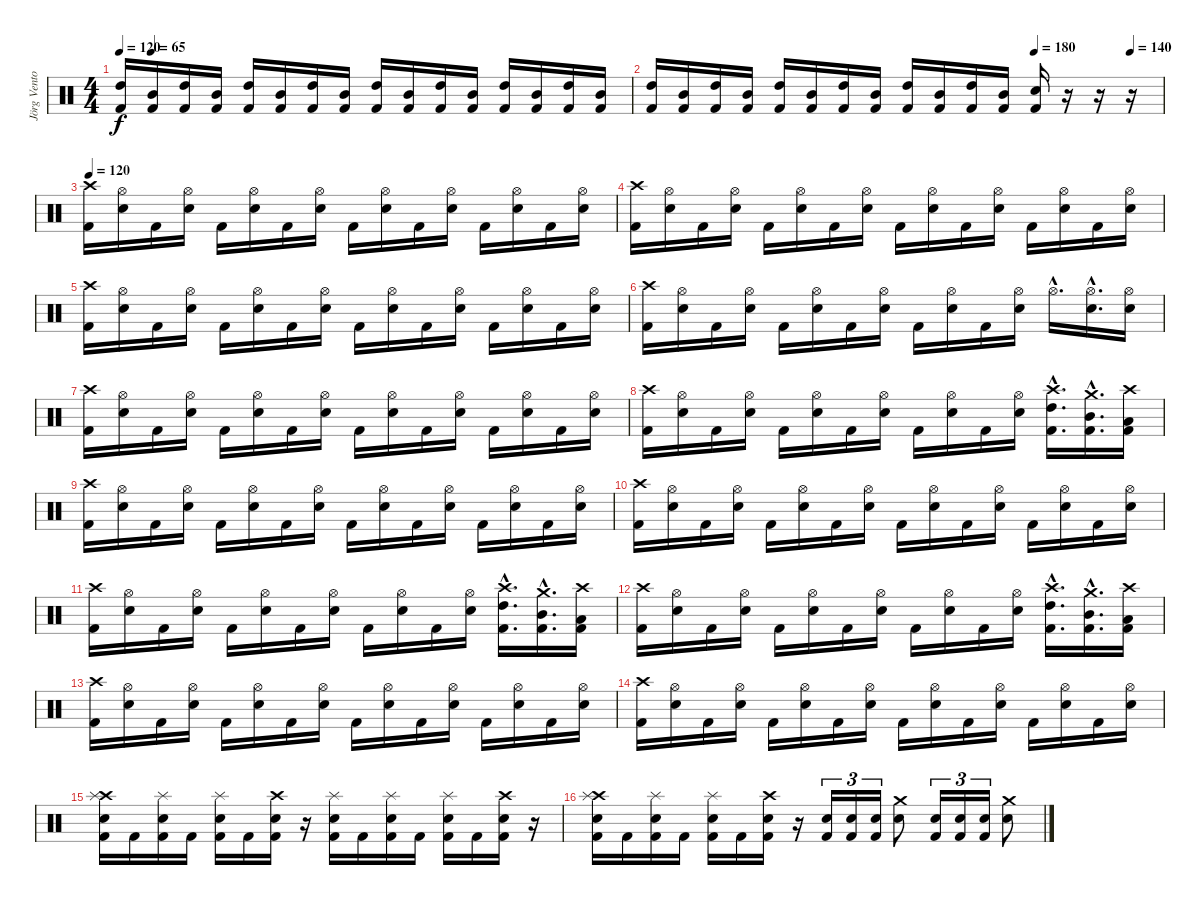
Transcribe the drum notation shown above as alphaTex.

\track ("Jörg Ventor" "Jörg Vento") {instrument percussion}
\staff {score}
\articulation defaults
\ts (4 4)
\tempo 120
\tempo 180
\tempo (65 0.0625)
\tempo 120
\clef neutral
\ks c
("Kick (hit) 2" "High Tom (hit)").16{dy f} ("Kick (hit) 2" "Mid Tom (hit)").16 ("Kick (hit) 2" "High Tom (hit)").16 ("Kick (hit) 2" "Mid Tom (hit)").16 ("Kick (hit) 2" "High Tom (hit)").16 ("Kick (hit) 2" "Mid Tom (hit)").16 ("Kick (hit) 2" "High Tom (hit)").16 ("Kick (hit) 2" "Mid Tom (hit)").16 ("Kick (hit) 2" "High Tom (hit)").16 ("Kick (hit) 2" "Mid Tom (hit)").16 ("Kick (hit) 2" "High Tom (hit)").16 ("Kick (hit) 2" "Mid Tom (hit)").16 ("Kick (hit) 2" "High Tom (hit)").16 ("Kick (hit) 2" "Mid Tom (hit)").16 ("Kick (hit) 2" "High Tom (hit)").16 ("Kick (hit) 2" "Mid Tom (hit)").16 |
\tempo (180 0.75)
\tempo (140 0.9375)
("Kick (hit) 2" "High Tom (hit)").16 ("Kick (hit) 2" "Mid Tom (hit)").16 ("Kick (hit) 2" "High Tom (hit)").16 ("Kick (hit) 2" "Mid Tom (hit)").16 ("Kick (hit) 2" "High Tom (hit)").16 ("Kick (hit) 2" "Mid Tom (hit)").16 ("Kick (hit) 2" "High Tom (hit)").16 ("Kick (hit) 2" "Mid Tom (hit)").16 ("Kick (hit) 2" "High Tom (hit)").16 ("Kick (hit) 2" "Mid Tom (hit)").16 ("Kick (hit) 2" "High Tom (hit)").16 ("Kick (hit) 2" "Mid Tom (hit)").16 ("Kick (hit) 2" "Snare (hit) 2").16 r.16 r.16 r.16 |
\tempo 120
("Crash high (hit)" "Kick (hit) 2").16 ("Hi-Hat (open)" "Snare (hit) 2").16 "Kick (hit) 2".16 ("Hi-Hat (open)" "Snare (hit) 2").16 "Kick (hit) 2".16 ("Hi-Hat (open)" "Snare (hit) 2").16 "Kick (hit) 2".16 ("Hi-Hat (open)" "Snare (hit) 2").16 "Kick (hit) 2".16 ("Hi-Hat (open)" "Snare (hit) 2").16 "Kick (hit) 2".16 ("Hi-Hat (open)" "Snare (hit) 2").16 "Kick (hit) 2".16 ("Hi-Hat (open)" "Snare (hit) 2").16 "Kick (hit) 2".16 ("Hi-Hat (open)" "Snare (hit) 2").16 |
("Crash high (hit)" "Kick (hit) 2").16 ("Hi-Hat (open)" "Snare (hit) 2").16 "Kick (hit) 2".16 ("Hi-Hat (open)" "Snare (hit) 2").16 "Kick (hit) 2".16 ("Hi-Hat (open)" "Snare (hit) 2").16 "Kick (hit) 2".16 ("Hi-Hat (open)" "Snare (hit) 2").16 "Kick (hit) 2".16 ("Hi-Hat (open)" "Snare (hit) 2").16 "Kick (hit) 2".16 ("Hi-Hat (open)" "Snare (hit) 2").16 "Kick (hit) 2".16 ("Hi-Hat (open)" "Snare (hit) 2").16 "Kick (hit) 2".16 ("Hi-Hat (open)" "Snare (hit) 2").16 |
("Crash high (hit)" "Kick (hit) 2").16 ("Hi-Hat (open)" "Snare (hit) 2").16 "Kick (hit) 2".16 ("Hi-Hat (open)" "Snare (hit) 2").16 "Kick (hit) 2".16 ("Hi-Hat (open)" "Snare (hit) 2").16 "Kick (hit) 2".16 ("Hi-Hat (open)" "Snare (hit) 2").16 "Kick (hit) 2".16 ("Hi-Hat (open)" "Snare (hit) 2").16 "Kick (hit) 2".16 ("Hi-Hat (open)" "Snare (hit) 2").16 "Kick (hit) 2".16 ("Hi-Hat (open)" "Snare (hit) 2").16 "Kick (hit) 2".16 ("Hi-Hat (open)" "Snare (hit) 2").16 |
("Crash high (hit)" "Kick (hit) 2").16 ("Hi-Hat (open)" "Snare (hit) 2").16 "Kick (hit) 2".16 ("Hi-Hat (open)" "Snare (hit) 2").16 "Kick (hit) 2".16 ("Hi-Hat (open)" "Snare (hit) 2").16 "Kick (hit) 2".16 ("Hi-Hat (open)" "Snare (hit) 2").16 "Kick (hit) 2".16 ("Hi-Hat (open)" "Snare (hit) 2").16 "Kick (hit) 2".16 ("Hi-Hat (open)" "Snare (hit) 2").16 "Hi-Hat (open)"{hac}.16{d} ("Hi-Hat (open)"{hac} "Snare (hit) 2"{hac}).16{d} ("Hi-Hat (open)" "Snare (hit) 2").16 |
("Crash high (hit)" "Kick (hit) 2").16 ("Hi-Hat (open)" "Snare (hit) 2").16 "Kick (hit) 2".16 ("Hi-Hat (open)" "Snare (hit) 2").16 "Kick (hit) 2".16 ("Hi-Hat (open)" "Snare (hit) 2").16 "Kick (hit) 2".16 ("Hi-Hat (open)" "Snare (hit) 2").16 "Kick (hit) 2".16 ("Hi-Hat (open)" "Snare (hit) 2").16 "Kick (hit) 2".16 ("Hi-Hat (open)" "Snare (hit) 2").16 "Kick (hit) 2".16 ("Hi-Hat (open)" "Snare (hit) 2").16 "Kick (hit) 2".16 ("Hi-Hat (open)" "Snare (hit) 2").16 |
("Crash high (hit)" "Kick (hit) 2").16 ("Hi-Hat (open)" "Snare (hit) 2").16 "Kick (hit) 2".16 ("Hi-Hat (open)" "Snare (hit) 2").16 "Kick (hit) 2".16 ("Hi-Hat (open)" "Snare (hit) 2").16 "Kick (hit) 2".16 ("Hi-Hat (open)" "Snare (hit) 2").16 "Kick (hit) 2".16 ("Hi-Hat (open)" "Snare (hit) 2").16 "Kick (hit) 2".16 ("Hi-Hat (open)" "Snare (hit) 2").16 ("High Tom (hit)"{hac} "Kick (hit) 2"{hac} "Crash high (hit)"{hac}).16{d} ("Mid Tom (hit)"{hac} "Kick (hit) 2"{hac} "Crash medium (hit)"{hac}).16{d} ("Low Tom (hit)" "Kick (hit) 2" "Crash high (hit)").16 |
("Crash high (hit)" "Kick (hit) 2").16 ("Hi-Hat (open)" "Snare (hit) 2").16 "Kick (hit) 2".16 ("Hi-Hat (open)" "Snare (hit) 2").16 "Kick (hit) 2".16 ("Hi-Hat (open)" "Snare (hit) 2").16 "Kick (hit) 2".16 ("Hi-Hat (open)" "Snare (hit) 2").16 "Kick (hit) 2".16 ("Hi-Hat (open)" "Snare (hit) 2").16 "Kick (hit) 2".16 ("Hi-Hat (open)" "Snare (hit) 2").16 "Kick (hit) 2".16 ("Hi-Hat (open)" "Snare (hit) 2").16 "Kick (hit) 2".16 ("Hi-Hat (open)" "Snare (hit) 2").16 |
("Crash high (hit)" "Kick (hit) 2").16 ("Hi-Hat (open)" "Snare (hit) 2").16 "Kick (hit) 2".16 ("Hi-Hat (open)" "Snare (hit) 2").16 "Kick (hit) 2".16 ("Hi-Hat (open)" "Snare (hit) 2").16 "Kick (hit) 2".16 ("Hi-Hat (open)" "Snare (hit) 2").16 "Kick (hit) 2".16 ("Hi-Hat (open)" "Snare (hit) 2").16 "Kick (hit) 2".16 ("Hi-Hat (open)" "Snare (hit) 2").16 "Kick (hit) 2".16 ("Hi-Hat (open)" "Snare (hit) 2").16 "Kick (hit) 2".16 ("Hi-Hat (open)" "Snare (hit) 2").16 |
("Crash high (hit)" "Kick (hit) 2").16 ("Hi-Hat (open)" "Snare (hit) 2").16 "Kick (hit) 2".16 ("Hi-Hat (open)" "Snare (hit) 2").16 "Kick (hit) 2".16 ("Hi-Hat (open)" "Snare (hit) 2").16 "Kick (hit) 2".16 ("Hi-Hat (open)" "Snare (hit) 2").16 "Kick (hit) 2".16 ("Hi-Hat (open)" "Snare (hit) 2").16 "Kick (hit) 2".16 ("Hi-Hat (open)" "Snare (hit) 2").16 ("High Tom (hit)"{hac} "Kick (hit) 2"{hac} "Crash high (hit)"{hac}).16{d} ("Mid Tom (hit)"{hac} "Kick (hit) 2"{hac} "Crash medium (hit)"{hac}).16{d} ("Low Tom (hit)" "Kick (hit) 2" "Crash high (hit)").16 |
("Crash high (hit)" "Kick (hit) 2").16 ("Hi-Hat (open)" "Snare (hit) 2").16 "Kick (hit) 2".16 ("Hi-Hat (open)" "Snare (hit) 2").16 "Kick (hit) 2".16 ("Hi-Hat (open)" "Snare (hit) 2").16 "Kick (hit) 2".16 ("Hi-Hat (open)" "Snare (hit) 2").16 "Kick (hit) 2".16 ("Hi-Hat (open)" "Snare (hit) 2").16 "Kick (hit) 2".16 ("Hi-Hat (open)" "Snare (hit) 2").16 ("High Tom (hit)"{hac} "Kick (hit) 2"{hac} "Crash high (hit)"{hac}).16{d} ("Mid Tom (hit)"{hac} "Kick (hit) 2"{hac} "Crash medium (hit)"{hac}).16{d} ("Low Tom (hit)" "Kick (hit) 2" "Crash high (hit)").16 |
("Crash high (hit)" "Kick (hit) 2").16 ("Hi-Hat (open)" "Snare (hit) 2").16 "Kick (hit) 2".16 ("Hi-Hat (open)" "Snare (hit) 2").16 "Kick (hit) 2".16 ("Hi-Hat (open)" "Snare (hit) 2").16 "Kick (hit) 2".16 ("Hi-Hat (open)" "Snare (hit) 2").16 "Kick (hit) 2".16 ("Hi-Hat (open)" "Snare (hit) 2").16 "Kick (hit) 2".16 ("Hi-Hat (open)" "Snare (hit) 2").16 "Kick (hit) 2".16 ("Hi-Hat (open)" "Snare (hit) 2").16 "Kick (hit) 2".16 ("Hi-Hat (open)" "Snare (hit) 2").16 |
("Crash high (hit)" "Kick (hit) 2").16 ("Hi-Hat (open)" "Snare (hit) 2").16 "Kick (hit) 2".16 ("Hi-Hat (open)" "Snare (hit) 2").16 "Kick (hit) 2".16 ("Hi-Hat (open)" "Snare (hit) 2").16 "Kick (hit) 2".16 ("Hi-Hat (open)" "Snare (hit) 2").16 "Kick (hit) 2".16 ("Hi-Hat (open)" "Snare (hit) 2").16 "Kick (hit) 2".16 ("Hi-Hat (open)" "Snare (hit) 2").16 "Kick (hit) 2".16 ("Hi-Hat (open)" "Snare (hit) 2").16 "Kick (hit) 2".16 ("Hi-Hat (open)" "Snare (hit) 2").16 |
("Crash high (hit)" "Kick (hit) 2" "Snare (hit) 2" "Splash (hit)").16 "Kick (hit) 2".16 ("Kick (hit) 2" "Snare (hit) 2" "Splash (hit)").16 "Kick (hit) 2".16 ("Kick (hit) 2" "Snare (hit) 2" "Splash (hit)").16 "Kick (hit) 2".16 ("Kick (hit) 2" "Snare (hit) 2" "Crash high (hit)").16 r.16 ("Kick (hit) 2" "Snare (hit) 2" "Splash (hit)").16 "Kick (hit) 2".16 ("Kick (hit) 2" "Snare (hit) 2" "Splash (hit)").16 "Kick (hit) 2".16 ("Kick (hit) 2" "Snare (hit) 2" "Splash (hit)").16 "Kick (hit) 2".16 ("Kick (hit) 2" "Snare (hit) 2" "Crash high (hit)").16 r.16 |
("Crash high (hit)" "Kick (hit) 2" "Snare (hit) 2" "Splash (hit)").16 "Kick (hit) 2".16 ("Kick (hit) 2" "Snare (hit) 2" "Splash (hit)").16 "Kick (hit) 2".16 ("Kick (hit) 2" "Snare (hit) 2" "Splash (hit)").16 "Kick (hit) 2".16 ("Kick (hit) 2" "Snare (hit) 2" "Crash high (hit)").16 r.16 ("Snare (hit) 2" "Kick (hit) 2").16{tu (3 2)} ("Snare (hit) 2" "Kick (hit) 2").16{tu (3 2)} ("Snare (hit) 2" "Kick (hit) 2").16{tu (3 2)} ("Snare (hit) 2" "Crash medium (hit)").8 ("Snare (hit) 2" "Kick (hit) 2").16{tu (3 2)} ("Snare (hit) 2" "Kick (hit) 2").16{tu (3 2)} ("Snare (hit) 2" "Kick (hit) 2").16{tu (3 2)} ("Electric Snare (hit)" "Crash medium (hit)").8
